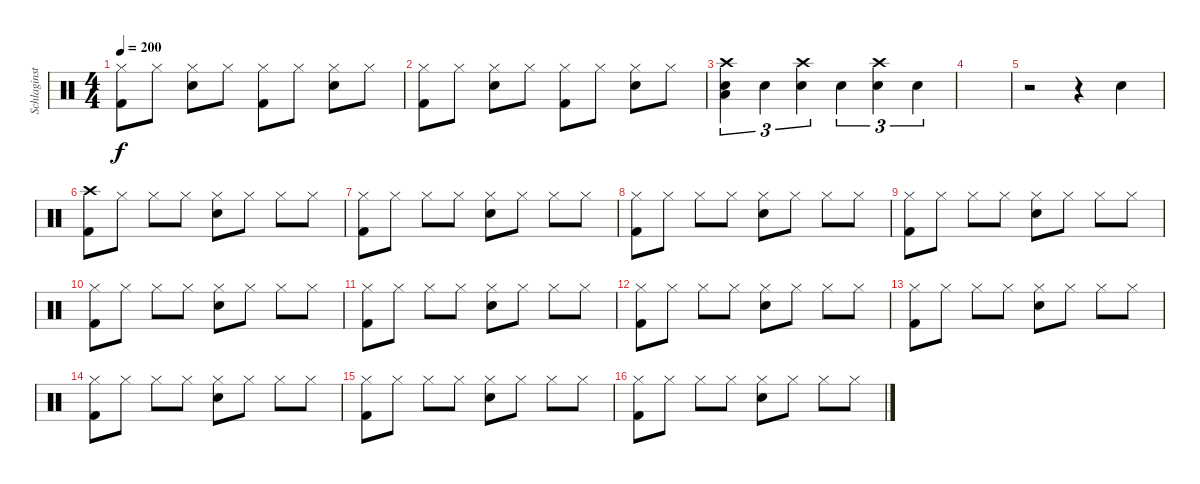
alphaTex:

\track ("Schlaginstrumente - Auswahl" "Schlaginst") {instrument percussion}
\staff {score}
\articulation defaults
\ts (4 4)
\tempo 200
\clef neutral
\ks c
("Hi-Hat (closed)" "Kick (hit) 2").8{dy f} "Hi-Hat (closed)".8 ("Hi-Hat (closed)" "Snare (hit) 2").8 "Hi-Hat (closed)".8 ("Hi-Hat (closed)" "Kick (hit) 2").8 "Hi-Hat (closed)".8 ("Hi-Hat (closed)" "Snare (hit) 2").8 "Hi-Hat (closed)".8 |
("Hi-Hat (closed)" "Kick (hit) 2").8 "Hi-Hat (closed)".8 ("Hi-Hat (closed)" "Snare (hit) 2").8 "Hi-Hat (closed)".8 ("Hi-Hat (closed)" "Kick (hit) 2").8 "Hi-Hat (closed)".8 ("Hi-Hat (closed)" "Snare (hit) 2").8 "Hi-Hat (closed)".8 |
("Crash high (hit)" "Snare (hit) 2" "Low Tom (hit)").4{tu (3 2)} "Snare (hit) 2".4{tu (3 2)} ("Crash high (hit)" "Snare (hit) 2").4{tu (3 2)} "Snare (hit) 2".4{tu (3 2)} ("Crash high (hit)" "Snare (hit) 2").4{tu (3 2)} "Snare (hit) 2".4{tu (3 2)} |
|
r.2 r.4 "Snare (hit) 2".4 |
("Crash high (hit)" "Kick (hit) 2").8 "Hi-Hat (closed)".8 "Hi-Hat (closed)".8 "Hi-Hat (closed)".8 ("Hi-Hat (closed)" "Snare (hit) 2").8 "Hi-Hat (closed)".8 "Hi-Hat (closed)".8 "Hi-Hat (closed)".8 |
("Hi-Hat (closed)" "Kick (hit) 2").8 "Hi-Hat (closed)".8 "Hi-Hat (closed)".8 "Hi-Hat (closed)".8 ("Hi-Hat (closed)" "Snare (hit) 2").8 "Hi-Hat (closed)".8 "Hi-Hat (closed)".8 "Hi-Hat (closed)".8 |
("Hi-Hat (closed)" "Kick (hit) 2").8 "Hi-Hat (closed)".8 "Hi-Hat (closed)".8 "Hi-Hat (closed)".8 ("Hi-Hat (closed)" "Snare (hit) 2").8 "Hi-Hat (closed)".8 "Hi-Hat (closed)".8 "Hi-Hat (closed)".8 |
("Hi-Hat (closed)" "Kick (hit) 2").8 "Hi-Hat (closed)".8 "Hi-Hat (closed)".8 "Hi-Hat (closed)".8 ("Hi-Hat (closed)" "Snare (hit) 2").8 "Hi-Hat (closed)".8 "Hi-Hat (closed)".8 "Hi-Hat (closed)".8 |
("Hi-Hat (closed)" "Kick (hit) 2").8 "Hi-Hat (closed)".8 "Hi-Hat (closed)".8 "Hi-Hat (closed)".8 ("Hi-Hat (closed)" "Snare (hit) 2").8 "Hi-Hat (closed)".8 "Hi-Hat (closed)".8 "Hi-Hat (closed)".8 |
("Hi-Hat (closed)" "Kick (hit) 2").8 "Hi-Hat (closed)".8 "Hi-Hat (closed)".8 "Hi-Hat (closed)".8 ("Hi-Hat (closed)" "Snare (hit) 2").8 "Hi-Hat (closed)".8 "Hi-Hat (closed)".8 "Hi-Hat (closed)".8 |
("Hi-Hat (closed)" "Kick (hit) 2").8 "Hi-Hat (closed)".8 "Hi-Hat (closed)".8 "Hi-Hat (closed)".8 ("Hi-Hat (closed)" "Snare (hit) 2").8 "Hi-Hat (closed)".8 "Hi-Hat (closed)".8 "Hi-Hat (closed)".8 |
("Hi-Hat (closed)" "Kick (hit) 2").8 "Hi-Hat (closed)".8 "Hi-Hat (closed)".8 "Hi-Hat (closed)".8 ("Hi-Hat (closed)" "Snare (hit) 2").8 "Hi-Hat (closed)".8 "Hi-Hat (closed)".8 "Hi-Hat (closed)".8 |
("Hi-Hat (closed)" "Kick (hit) 2").8 "Hi-Hat (closed)".8 "Hi-Hat (closed)".8 "Hi-Hat (closed)".8 ("Hi-Hat (closed)" "Snare (hit) 2").8 "Hi-Hat (closed)".8 "Hi-Hat (closed)".8 "Hi-Hat (closed)".8 |
("Hi-Hat (closed)" "Kick (hit) 2").8 "Hi-Hat (closed)".8 "Hi-Hat (closed)".8 "Hi-Hat (closed)".8 ("Hi-Hat (closed)" "Snare (hit) 2").8 "Hi-Hat (closed)".8 "Hi-Hat (closed)".8 "Hi-Hat (closed)".8 |
("Hi-Hat (closed)" "Kick (hit) 2").8 "Hi-Hat (closed)".8 "Hi-Hat (closed)".8 "Hi-Hat (closed)".8 ("Hi-Hat (closed)" "Snare (hit) 2").8 "Hi-Hat (closed)".8 "Hi-Hat (closed)".8 "Hi-Hat (closed)".8
